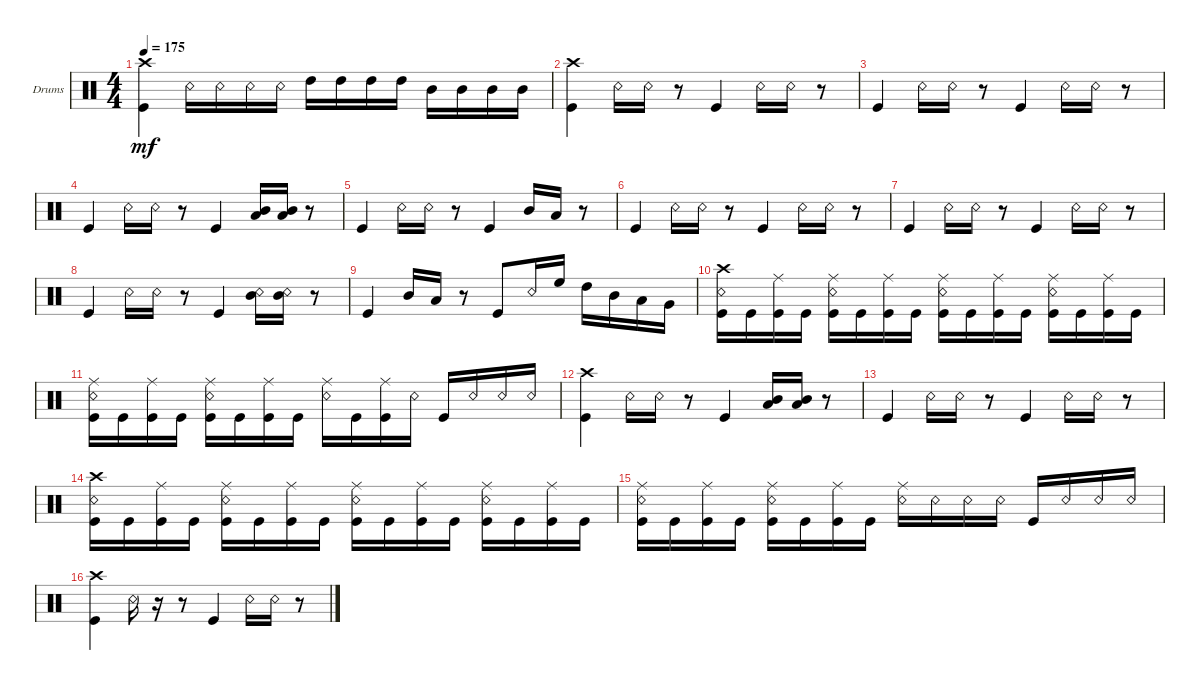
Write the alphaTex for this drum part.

\defaultSystemsLayout 4
\bracketExtendMode groupsimilarinstruments
\firstSystemTrackNameOrientation horizontal
\otherSystemsTrackNameOrientation horizontal
\track ("Drumkit" "Drums") {instrument percussion}
\staff {score}
\articulation defaults
\ts (4 4)
\tempo 175
\clef neutral
\ks c
("Kick (hit)" "Crash high (hit)").4{dy mf} "Snare (rim shot)".16 "Snare (rim shot)".16 "Snare (rim shot)".16 "Snare (rim shot)".16 "High Tom (hit)".16 "High Tom (hit)".16 "High Tom (hit)".16 "High Tom (hit)".16 "Mid Tom (hit)".16 "Mid Tom (hit)".16 "Mid Tom (hit)".16 "Mid Tom (hit)".16 |
("Kick (hit)" "Crash high (hit)").4 "Snare (rim shot)".16 "Snare (rim shot)".16 r.8 "Kick (hit)".4 "Snare (rim shot)".16 "Snare (rim shot)".16 r.8 |
"Kick (hit)".4 "Snare (rim shot)".16 "Snare (rim shot)".16 r.8 "Kick (hit)".4 "Snare (rim shot)".16 "Snare (rim shot)".16 r.8 |
"Kick (hit)".4 "Snare (rim shot)".16 "Snare (rim shot)".16 r.8 "Kick (hit)".4 ("Mid Tom (hit)" "Low Tom (hit)").16 ("Low Tom (hit)" "Mid Tom (hit)").16 r.8 |
"Kick (hit)".4 "Snare (rim shot)".16 "Snare (rim shot)".16 r.8 "Kick (hit)".4 "Mid Tom (hit)".16 "Low Tom (hit)".16 r.8 |
"Kick (hit)".4 "Snare (rim shot)".16 "Snare (rim shot)".16 r.8 "Kick (hit)".4 "Snare (rim shot)".16 "Snare (rim shot)".16 r.8 |
"Kick (hit)".4 "Snare (rim shot)".16 "Snare (rim shot)".16 r.8 "Kick (hit)".4 "Snare (rim shot)".16 "Snare (rim shot)".16 r.8 |
"Kick (hit)".4 "Snare (rim shot)".16 "Snare (rim shot)".16 r.8 "Kick (hit)".4 ("Mid Tom (hit)" "Snare (rim shot)").16 ("Mid Tom (hit)" "Snare (rim shot)").16 r.8 |
"Kick (hit)".4 "Mid Tom (hit)".16 "Low Tom (hit)".16 r.8 "Kick (hit)".8 "Snare (rim shot)".16 "High Floor Tom (hit)".16 "High Tom (hit)".16 "Mid Tom (hit)".16 "Low Tom (hit)".16 "Very Low Tom (hit)".16 |
("Kick (hit)" "Crash high (hit)" "Snare (rim shot)").16 "Kick (hit)".16 ("Kick (hit)" "Ride (middle)").16 "Kick (hit)".16 ("Kick (hit)" "Snare (rim shot)" "Ride (middle)").16 "Kick (hit)".16 ("Kick (hit)" "Ride (middle)").16 "Kick (hit)".16 ("Kick (hit)" "Ride (middle)" "Snare (rim shot)").16 "Kick (hit)".16 ("Kick (hit)" "Ride (middle)").16 "Kick (hit)".16 ("Kick (hit)" "Ride (middle)" "Snare (rim shot)").16 "Kick (hit)".16 ("Kick (hit)" "Ride (middle)").16 "Kick (hit)".16 |
("Kick (hit)" "Snare (rim shot)" "Ride (middle)").16 "Kick (hit)".16 ("Kick (hit)" "Ride (middle)").16 "Kick (hit)".16 ("Kick (hit)" "Snare (rim shot)" "Ride (middle)").16 "Kick (hit)".16 ("Kick (hit)" "Ride (middle)").16 "Kick (hit)".16 ("Snare (rim shot)" "Ride (middle)").16 "Kick (hit)".16 ("Kick (hit)" "Ride (middle)").16 "Snare (rim shot)".16 "Kick (hit)".16 "Snare (rim shot)".16 "Snare (rim shot)".16 "Snare (rim shot)".16 |
("Kick (hit)" "Crash high (hit)").4 "Snare (rim shot)".16 "Snare (rim shot)".16 r.8 "Kick (hit)".4 ("Mid Tom (hit)" "Low Tom (hit)").16 ("Low Tom (hit)" "Mid Tom (hit)").16 r.8 |
"Kick (hit)".4 "Snare (rim shot)".16 "Snare (rim shot)".16 r.8 "Kick (hit)".4 "Snare (rim shot)".16 "Snare (rim shot)".16 r.8 |
("Kick (hit)" "Crash high (hit)" "Snare (rim shot)").16 "Kick (hit)".16 ("Kick (hit)" "Ride (middle)").16 "Kick (hit)".16 ("Kick (hit)" "Snare (rim shot)" "Ride (middle)").16 "Kick (hit)".16 ("Kick (hit)" "Ride (middle)").16 "Kick (hit)".16 ("Kick (hit)" "Ride (middle)" "Snare (rim shot)").16 "Kick (hit)".16 ("Kick (hit)" "Ride (middle)").16 "Kick (hit)".16 ("Kick (hit)" "Ride (middle)" "Snare (rim shot)").16 "Kick (hit)".16 ("Kick (hit)" "Ride (middle)").16 "Kick (hit)".16 |
("Kick (hit)" "Snare (rim shot)" "Ride (middle)").16 "Kick (hit)".16 ("Kick (hit)" "Ride (middle)").16 "Kick (hit)".16 ("Kick (hit)" "Snare (rim shot)" "Ride (middle)").16 "Kick (hit)".16 ("Kick (hit)" "Ride (middle)").16 "Kick (hit)".16 ("Snare (rim shot)" "Ride (middle)").16 "Snare (rim shot)".16 "Snare (rim shot)".16 "Snare (rim shot)".16 "Kick (hit)".16 "Snare (rim shot)".16 "Snare (rim shot)".16 "Snare (rim shot)".16 |
("Kick (hit)" "Crash high (hit)").4 "Snare (rim shot)".16 r.16 r.8 "Kick (hit)".4 "Snare (rim shot)".16 "Snare (rim shot)".16 r.8
